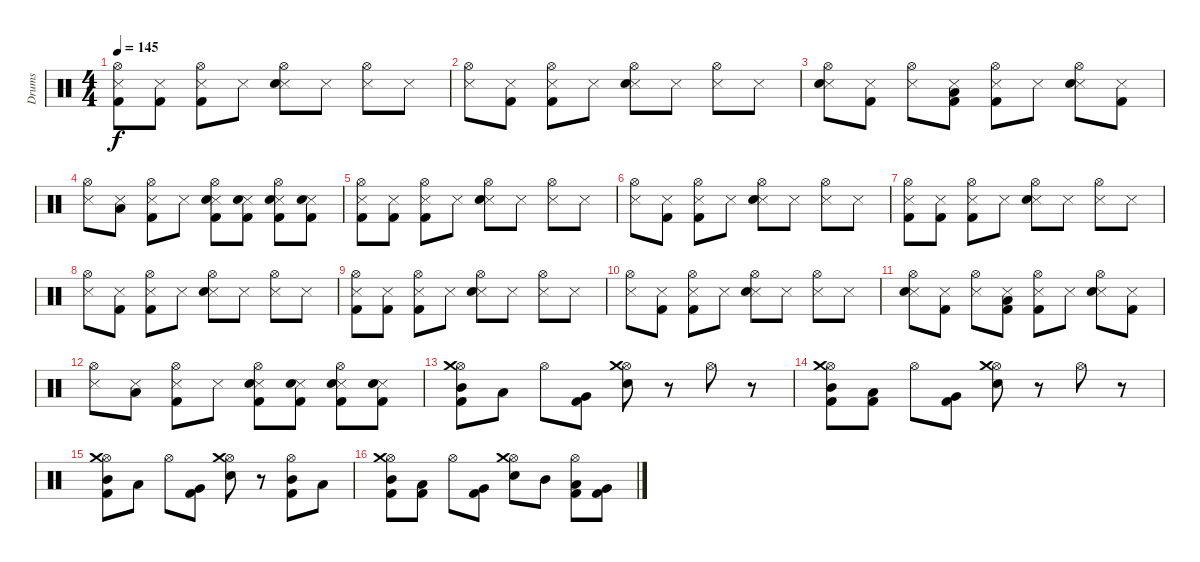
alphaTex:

\track ("Drums" "Drums") {instrument percussion}
\staff {score}
\articulation defaults
\ts (4 4)
\tempo 145
\clef neutral
\ks c
("Hi-Hat (open)" "Snare (side stick) 3" "Kick (hit) 2").8{dy f} ("Snare (side stick) 3" "Kick (hit) 2").8 ("Hi-Hat (open)" "Snare (side stick) 3" "Kick (hit) 2").8 "Snare (side stick) 3".8 ("Hi-Hat (open)" "Snare (side stick) 3" "Snare (hit) 2").8 "Snare (side stick) 3".8 ("Hi-Hat (open)" "Snare (side stick) 3").8 "Snare (side stick) 3".8 |
("Hi-Hat (open)" "Snare (side stick) 3").8 ("Snare (side stick) 3" "Kick (hit) 2").8 ("Hi-Hat (open)" "Snare (side stick) 3" "Kick (hit) 2").8 "Snare (side stick) 3".8 ("Hi-Hat (open)" "Snare (side stick) 3" "Snare (hit) 2").8 "Snare (side stick) 3".8 ("Hi-Hat (open)" "Snare (side stick) 3").8 "Snare (side stick) 3".8 |
("Hi-Hat (open)" "Snare (side stick) 3" "Electric Snare (hit)").8 ("Snare (side stick) 3" "Kick (hit) 2").8 ("Hi-Hat (open)" "Snare (side stick) 3").8 ("Snare (side stick) 3" "Low Tom (hit)" "Kick (hit) 2").8 ("Hi-Hat (open)" "Snare (side stick) 3" "Kick (hit) 2").8 "Snare (side stick) 3".8 ("Hi-Hat (open)" "Snare (side stick) 3" "Electric Snare (hit)").8 ("Snare (side stick) 3" "Kick (hit) 2").8 |
("Hi-Hat (open)" "Snare (side stick) 3").8 ("Snare (side stick) 3" "Low Tom (hit)").8 ("Hi-Hat (open)" "Snare (side stick) 3" "Kick (hit) 2").8 "Snare (side stick) 3".8 ("Hi-Hat (open)" "Snare (side stick) 3" "Electric Snare (hit)" "Kick (hit) 2").8 ("Snare (side stick) 3" "Electric Snare (hit)" "Kick (hit) 2").8 ("Hi-Hat (open)" "Snare (side stick) 3" "Electric Snare (hit)" "Kick (hit) 2").8 ("Snare (side stick) 3" "Electric Snare (hit)" "Kick (hit) 2").8 |
("Hi-Hat (open)" "Snare (side stick) 3" "Kick (hit) 2").8 ("Snare (side stick) 3" "Kick (hit) 2").8 ("Hi-Hat (open)" "Snare (side stick) 3" "Kick (hit) 2").8 "Snare (side stick) 3".8 ("Hi-Hat (open)" "Snare (side stick) 3" "Snare (hit) 2").8 "Snare (side stick) 3".8 ("Hi-Hat (open)" "Snare (side stick) 3").8 "Snare (side stick) 3".8 |
("Hi-Hat (open)" "Snare (side stick) 3").8 ("Snare (side stick) 3" "Kick (hit) 2").8 ("Hi-Hat (open)" "Snare (side stick) 3" "Kick (hit) 2").8 "Snare (side stick) 3".8 ("Hi-Hat (open)" "Snare (side stick) 3" "Snare (hit) 2").8 "Snare (side stick) 3".8 ("Hi-Hat (open)" "Snare (side stick) 3").8 "Snare (side stick) 3".8 |
("Hi-Hat (open)" "Snare (side stick) 3" "Kick (hit) 2").8 ("Snare (side stick) 3" "Kick (hit) 2").8 ("Hi-Hat (open)" "Snare (side stick) 3" "Kick (hit) 2").8 "Snare (side stick) 3".8 ("Hi-Hat (open)" "Snare (side stick) 3" "Snare (hit) 2").8 "Snare (side stick) 3".8 ("Hi-Hat (open)" "Snare (side stick) 3").8 "Snare (side stick) 3".8 |
("Hi-Hat (open)" "Snare (side stick) 3").8 ("Snare (side stick) 3" "Kick (hit) 2").8 ("Hi-Hat (open)" "Snare (side stick) 3" "Kick (hit) 2").8 "Snare (side stick) 3".8 ("Hi-Hat (open)" "Snare (side stick) 3" "Snare (hit) 2").8 "Snare (side stick) 3".8 ("Hi-Hat (open)" "Snare (side stick) 3").8 "Snare (side stick) 3".8 |
("Hi-Hat (open)" "Snare (side stick) 3" "Kick (hit) 2").8 ("Snare (side stick) 3" "Kick (hit) 2").8 ("Hi-Hat (open)" "Snare (side stick) 3" "Kick (hit) 2").8 "Snare (side stick) 3".8 ("Hi-Hat (open)" "Snare (side stick) 3" "Snare (hit) 2").8 "Snare (side stick) 3".8 ("Hi-Hat (open)" "Snare (side stick) 3").8 "Snare (side stick) 3".8 |
("Hi-Hat (open)" "Snare (side stick) 3").8 ("Snare (side stick) 3" "Kick (hit) 2").8 ("Hi-Hat (open)" "Snare (side stick) 3" "Kick (hit) 2").8 "Snare (side stick) 3".8 ("Hi-Hat (open)" "Snare (side stick) 3" "Snare (hit) 2").8 "Snare (side stick) 3".8 ("Hi-Hat (open)" "Snare (side stick) 3").8 "Snare (side stick) 3".8 |
("Hi-Hat (open)" "Snare (side stick) 3" "Electric Snare (hit)").8 ("Snare (side stick) 3" "Kick (hit) 2").8 ("Hi-Hat (open)" "Snare (side stick) 3").8 ("Snare (side stick) 3" "Low Tom (hit)" "Kick (hit) 2").8 ("Hi-Hat (open)" "Snare (side stick) 3" "Kick (hit) 2").8 "Snare (side stick) 3".8 ("Hi-Hat (open)" "Snare (side stick) 3" "Electric Snare (hit)").8 ("Snare (side stick) 3" "Kick (hit) 2").8 |
("Hi-Hat (open)" "Snare (side stick) 3").8 ("Snare (side stick) 3" "Low Tom (hit)").8 ("Hi-Hat (open)" "Snare (side stick) 3" "Kick (hit) 2").8 "Snare (side stick) 3".8 ("Hi-Hat (open)" "Snare (side stick) 3" "Electric Snare (hit)" "Kick (hit) 2").8 ("Snare (side stick) 3" "Electric Snare (hit)" "Kick (hit) 2").8 ("Hi-Hat (open)" "Snare (side stick) 3" "Electric Snare (hit)" "Kick (hit) 2").8 ("Snare (side stick) 3" "Electric Snare (hit)" "Kick (hit) 2").8 |
("Hi-Hat (open)" "Crash medium (hit)" "Mid Tom (hit)" "Kick (hit) 2").8 "Low Tom (hit)".8 "Hi-Hat (open)".8 ("Very Low Tom (hit)" "Kick (hit) 2").8 ("Hi-Hat (open)" "Crash medium (hit)" "Electric Snare (hit)").8 r.8 "Hi-Hat (open)".8 r.8 |
("Hi-Hat (open)" "Crash medium (hit)" "Mid Tom (hit)" "Kick (hit) 2").8 ("Low Tom (hit)" "Kick (hit) 2").8 "Hi-Hat (open)".8 ("Very Low Tom (hit)" "Kick (hit) 2").8 ("Hi-Hat (open)" "Crash medium (hit)" "Electric Snare (hit)").8 r.8 "Hi-Hat (open)".8 r.8 |
("Hi-Hat (open)" "Crash medium (hit)" "Mid Tom (hit)" "Kick (hit) 2").8 "Low Tom (hit)".8 "Hi-Hat (open)".8 ("Very Low Tom (hit)" "Kick (hit) 2").8 ("Hi-Hat (open)" "Crash medium (hit)" "Electric Snare (hit)").8 r.8 ("Hi-Hat (open)" "Mid Tom (hit)" "Kick (hit) 2").8 "Low Tom (hit)".8 |
("Hi-Hat (open)" "Crash medium (hit)" "Mid Tom (hit)" "Kick (hit) 2").8 ("Low Tom (hit)" "Kick (hit) 2").8 "Hi-Hat (open)".8 ("Very Low Tom (hit)" "Kick (hit) 2").8 ("Hi-Hat (open)" "Crash medium (hit)" "Electric Snare (hit)").8 "Mid Tom (hit)".8 ("Hi-Hat (open)" "Low Tom (hit)" "Kick (hit) 2").8 ("Very Low Tom (hit)" "Kick (hit) 2").8
